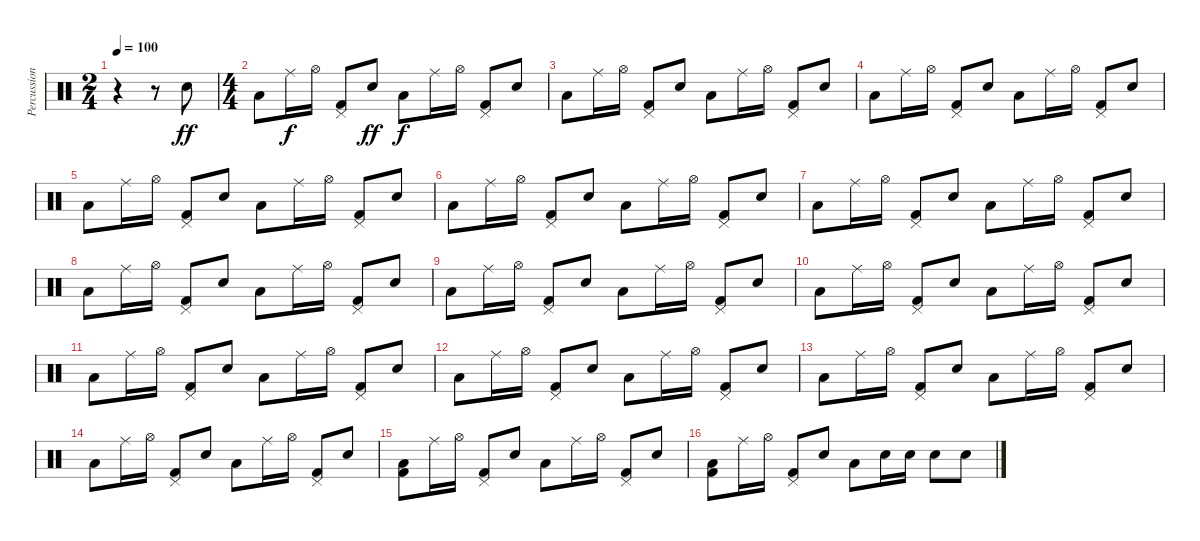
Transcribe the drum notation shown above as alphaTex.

\track ("Percussion" "Percussion") {instrument percussion}
\staff {score}
\articulation defaults
\ts (2 4)
\tempo 100
\clef neutral
\ks c
r.4{dy ff} r.8 "Electric Snare (hit)".8 |
\ts (4 4)
"Low Tom (hit)".8 "Ride (middle)".16{dy f} "Hi-Hat (open)".16 ("Pedal Hi-Hat (hit)" "Kick (hit) 2").8 "Electric Snare (hit)".8{dy ff} "Low Tom (hit)".8{dy f} "Ride (middle)".16 "Hi-Hat (open)".16 ("Pedal Hi-Hat (hit)" "Kick (hit) 2").8 "Electric Snare (hit)".8 |
"Low Tom (hit)".8 "Ride (middle)".16 "Hi-Hat (open)".16 ("Pedal Hi-Hat (hit)" "Kick (hit) 2").8 "Electric Snare (hit)".8 "Low Tom (hit)".8 "Ride (middle)".16 "Hi-Hat (open)".16 ("Pedal Hi-Hat (hit)" "Kick (hit) 2").8 "Electric Snare (hit)".8 |
"Low Tom (hit)".8 "Ride (middle)".16 "Hi-Hat (open)".16 ("Pedal Hi-Hat (hit)" "Kick (hit) 2").8 "Electric Snare (hit)".8 "Low Tom (hit)".8 "Ride (middle)".16 "Hi-Hat (open)".16 ("Pedal Hi-Hat (hit)" "Kick (hit) 2").8 "Electric Snare (hit)".8 |
"Low Tom (hit)".8 "Ride (middle)".16 "Hi-Hat (open)".16 ("Pedal Hi-Hat (hit)" "Kick (hit) 2").8 "Electric Snare (hit)".8 "Low Tom (hit)".8 "Ride (middle)".16 "Hi-Hat (open)".16 ("Pedal Hi-Hat (hit)" "Kick (hit) 2").8 "Electric Snare (hit)".8 |
"Low Tom (hit)".8 "Ride (middle)".16 "Hi-Hat (open)".16 ("Pedal Hi-Hat (hit)" "Kick (hit) 2").8 "Electric Snare (hit)".8 "Low Tom (hit)".8 "Ride (middle)".16 "Hi-Hat (open)".16 ("Pedal Hi-Hat (hit)" "Kick (hit) 2").8 "Electric Snare (hit)".8 |
"Low Tom (hit)".8 "Ride (middle)".16 "Hi-Hat (open)".16 ("Pedal Hi-Hat (hit)" "Kick (hit) 2").8 "Electric Snare (hit)".8 "Low Tom (hit)".8 "Ride (middle)".16 "Hi-Hat (open)".16 ("Pedal Hi-Hat (hit)" "Kick (hit) 2").8 "Electric Snare (hit)".8 |
"Low Tom (hit)".8 "Ride (middle)".16 "Hi-Hat (open)".16 ("Pedal Hi-Hat (hit)" "Kick (hit) 2").8 "Electric Snare (hit)".8 "Low Tom (hit)".8 "Ride (middle)".16 "Hi-Hat (open)".16 ("Pedal Hi-Hat (hit)" "Kick (hit) 2").8 "Electric Snare (hit)".8 |
"Low Tom (hit)".8 "Ride (middle)".16 "Hi-Hat (open)".16 ("Pedal Hi-Hat (hit)" "Kick (hit) 2").8 "Electric Snare (hit)".8 "Low Tom (hit)".8 "Ride (middle)".16 "Hi-Hat (open)".16 ("Pedal Hi-Hat (hit)" "Kick (hit) 2").8 "Electric Snare (hit)".8 |
"Low Tom (hit)".8 "Ride (middle)".16 "Hi-Hat (open)".16 ("Pedal Hi-Hat (hit)" "Kick (hit) 2").8 "Electric Snare (hit)".8 "Low Tom (hit)".8 "Ride (middle)".16 "Hi-Hat (open)".16 ("Pedal Hi-Hat (hit)" "Kick (hit) 2").8 "Electric Snare (hit)".8 |
"Low Tom (hit)".8 "Ride (middle)".16 "Hi-Hat (open)".16 ("Pedal Hi-Hat (hit)" "Kick (hit) 2").8 "Electric Snare (hit)".8 "Low Tom (hit)".8 "Ride (middle)".16 "Hi-Hat (open)".16 ("Pedal Hi-Hat (hit)" "Kick (hit) 2").8 "Electric Snare (hit)".8 |
"Low Tom (hit)".8 "Ride (middle)".16 "Hi-Hat (open)".16 ("Pedal Hi-Hat (hit)" "Kick (hit) 2").8 "Electric Snare (hit)".8 "Low Tom (hit)".8 "Ride (middle)".16 "Hi-Hat (open)".16 ("Pedal Hi-Hat (hit)" "Kick (hit) 2").8 "Electric Snare (hit)".8 |
"Low Tom (hit)".8 "Ride (middle)".16 "Hi-Hat (open)".16 ("Pedal Hi-Hat (hit)" "Kick (hit) 2").8 "Electric Snare (hit)".8 "Low Tom (hit)".8 "Ride (middle)".16 "Hi-Hat (open)".16 ("Pedal Hi-Hat (hit)" "Kick (hit) 2").8 "Electric Snare (hit)".8 |
"Low Tom (hit)".8 "Ride (middle)".16 "Hi-Hat (open)".16 ("Pedal Hi-Hat (hit)" "Kick (hit) 2").8 "Electric Snare (hit)".8 "Low Tom (hit)".8 "Ride (middle)".16 "Hi-Hat (open)".16 ("Pedal Hi-Hat (hit)" "Kick (hit) 2").8 "Electric Snare (hit)".8 |
("Low Tom (hit)" "Kick (hit) 2").8 "Ride (middle)".16 "Hi-Hat (open)".16 ("Pedal Hi-Hat (hit)" "Kick (hit) 2").8 "Electric Snare (hit)".8 "Low Tom (hit)".8 "Ride (middle)".16 "Hi-Hat (open)".16 ("Pedal Hi-Hat (hit)" "Kick (hit) 2").8 "Electric Snare (hit)".8 |
("Low Tom (hit)" "Kick (hit) 2").8 "Ride (middle)".16 "Hi-Hat (open)".16 ("Pedal Hi-Hat (hit)" "Kick (hit) 2").8 "Electric Snare (hit)".8 "Low Tom (hit)".8 "Electric Snare (hit)".16 "Electric Snare (hit)".16 "Electric Snare (hit)".8 "Electric Snare (hit)".8
